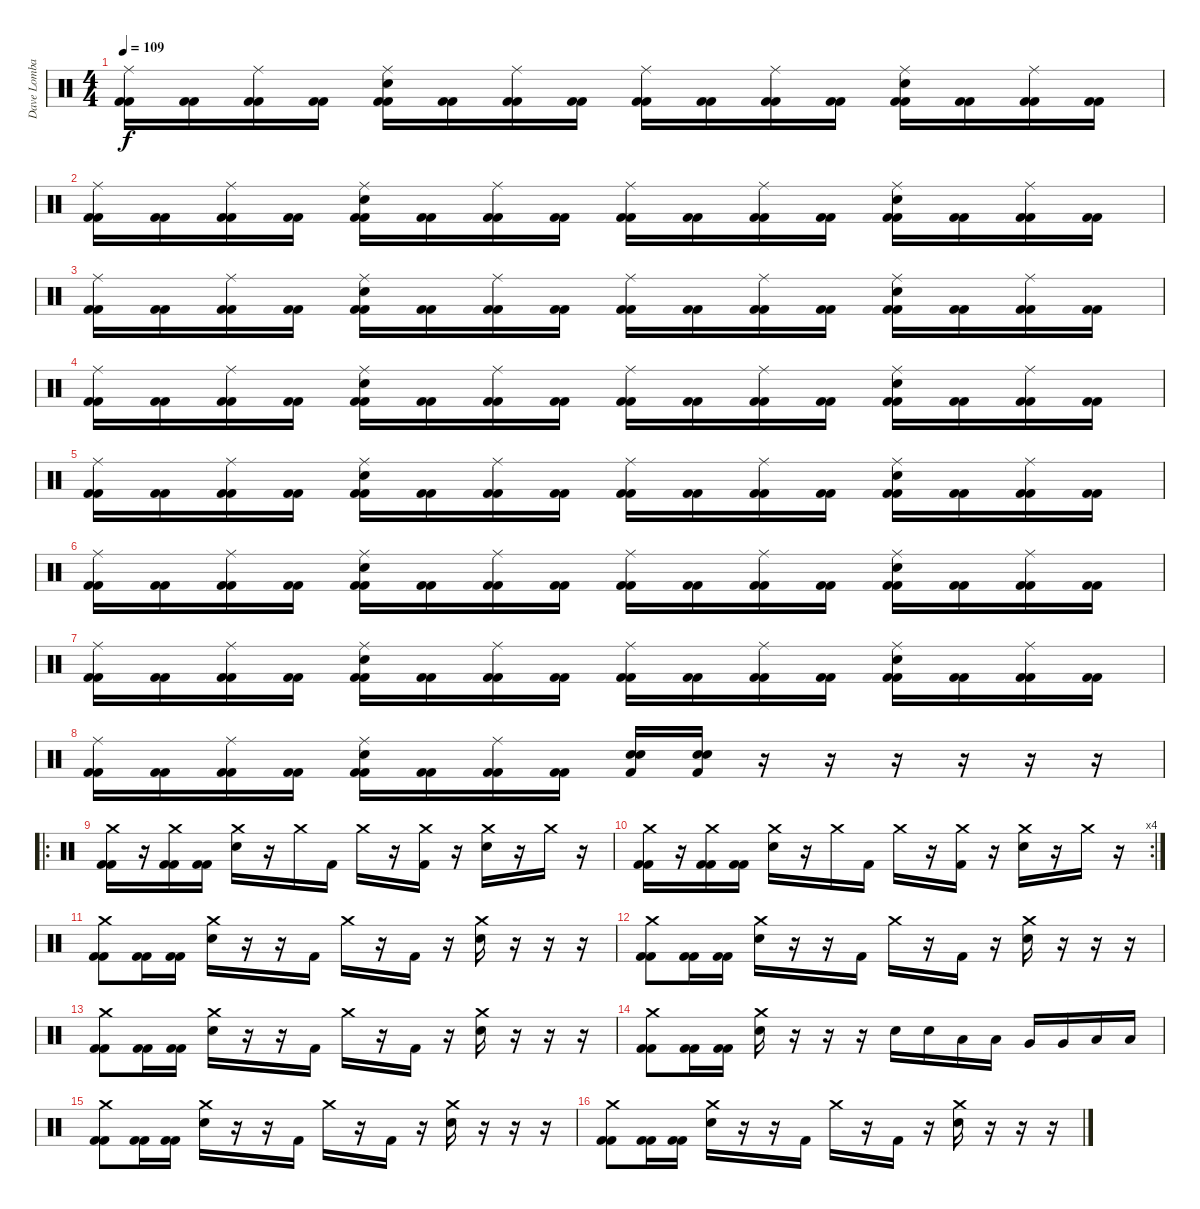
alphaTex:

\track ("Dave Lombardo" "Dave Lomba") {instrument percussion}
\staff {score}
\articulation defaults
\ts (4 4)
\tempo 109
\clef neutral
\ks c
("Kick (hit) 2" "Ride (middle)" "Kick (hit) 2").16{dy f} ("Kick (hit) 2" "Kick (hit) 2").16 ("Kick (hit) 2" "Ride (middle)" "Kick (hit) 2").16 ("Kick (hit) 2" "Kick (hit) 2").16 ("Kick (hit) 2" "Ride (middle)" "Electric Snare (hit)" "Kick (hit) 2").16 ("Kick (hit) 2" "Kick (hit) 2").16 ("Kick (hit) 2" "Ride (middle)" "Kick (hit) 2").16 ("Kick (hit) 2" "Kick (hit) 2").16 ("Kick (hit) 2" "Ride (middle)" "Kick (hit) 2").16 ("Kick (hit) 2" "Kick (hit) 2").16 ("Kick (hit) 2" "Ride (middle)" "Kick (hit) 2").16 ("Kick (hit) 2" "Kick (hit) 2").16 ("Kick (hit) 2" "Ride (middle)" "Electric Snare (hit)" "Kick (hit) 2").16 ("Kick (hit) 2" "Kick (hit) 2").16 ("Kick (hit) 2" "Ride (middle)" "Kick (hit) 2").16 ("Kick (hit) 2" "Kick (hit) 2").16 |
("Kick (hit) 2" "Ride (middle)" "Kick (hit) 2").16 ("Kick (hit) 2" "Kick (hit) 2").16 ("Kick (hit) 2" "Ride (middle)" "Kick (hit) 2").16 ("Kick (hit) 2" "Kick (hit) 2").16 ("Kick (hit) 2" "Ride (middle)" "Electric Snare (hit)" "Kick (hit) 2").16 ("Kick (hit) 2" "Kick (hit) 2").16 ("Kick (hit) 2" "Ride (middle)" "Kick (hit) 2").16 ("Kick (hit) 2" "Kick (hit) 2").16 ("Kick (hit) 2" "Ride (middle)" "Kick (hit) 2").16 ("Kick (hit) 2" "Kick (hit) 2").16 ("Kick (hit) 2" "Ride (middle)" "Kick (hit) 2").16 ("Kick (hit) 2" "Kick (hit) 2").16 ("Kick (hit) 2" "Ride (middle)" "Electric Snare (hit)" "Kick (hit) 2").16 ("Kick (hit) 2" "Kick (hit) 2").16 ("Kick (hit) 2" "Ride (middle)" "Kick (hit) 2").16 ("Kick (hit) 2" "Kick (hit) 2").16 |
("Kick (hit) 2" "Ride (middle)" "Kick (hit) 2").16 ("Kick (hit) 2" "Kick (hit) 2").16 ("Kick (hit) 2" "Ride (middle)" "Kick (hit) 2").16 ("Kick (hit) 2" "Kick (hit) 2").16 ("Kick (hit) 2" "Ride (middle)" "Electric Snare (hit)" "Kick (hit) 2").16 ("Kick (hit) 2" "Kick (hit) 2").16 ("Kick (hit) 2" "Ride (middle)" "Kick (hit) 2").16 ("Kick (hit) 2" "Kick (hit) 2").16 ("Kick (hit) 2" "Ride (middle)" "Kick (hit) 2").16 ("Kick (hit) 2" "Kick (hit) 2").16 ("Kick (hit) 2" "Ride (middle)" "Kick (hit) 2").16 ("Kick (hit) 2" "Kick (hit) 2").16 ("Kick (hit) 2" "Ride (middle)" "Electric Snare (hit)" "Kick (hit) 2").16 ("Kick (hit) 2" "Kick (hit) 2").16 ("Kick (hit) 2" "Ride (middle)" "Kick (hit) 2").16 ("Kick (hit) 2" "Kick (hit) 2").16 |
("Kick (hit) 2" "Ride (middle)" "Kick (hit) 2").16 ("Kick (hit) 2" "Kick (hit) 2").16 ("Kick (hit) 2" "Ride (middle)" "Kick (hit) 2").16 ("Kick (hit) 2" "Kick (hit) 2").16 ("Kick (hit) 2" "Ride (middle)" "Electric Snare (hit)" "Kick (hit) 2").16 ("Kick (hit) 2" "Kick (hit) 2").16 ("Kick (hit) 2" "Ride (middle)" "Kick (hit) 2").16 ("Kick (hit) 2" "Kick (hit) 2").16 ("Kick (hit) 2" "Ride (middle)" "Kick (hit) 2").16 ("Kick (hit) 2" "Kick (hit) 2").16 ("Kick (hit) 2" "Ride (middle)" "Kick (hit) 2").16 ("Kick (hit) 2" "Kick (hit) 2").16 ("Kick (hit) 2" "Ride (middle)" "Electric Snare (hit)" "Kick (hit) 2").16 ("Kick (hit) 2" "Kick (hit) 2").16 ("Kick (hit) 2" "Ride (middle)" "Kick (hit) 2").16 ("Kick (hit) 2" "Kick (hit) 2").16 |
("Kick (hit) 2" "Ride (middle)" "Kick (hit) 2").16 ("Kick (hit) 2" "Kick (hit) 2").16 ("Kick (hit) 2" "Ride (middle)" "Kick (hit) 2").16 ("Kick (hit) 2" "Kick (hit) 2").16 ("Kick (hit) 2" "Ride (middle)" "Electric Snare (hit)" "Kick (hit) 2").16 ("Kick (hit) 2" "Kick (hit) 2").16 ("Kick (hit) 2" "Ride (middle)" "Kick (hit) 2").16 ("Kick (hit) 2" "Kick (hit) 2").16 ("Kick (hit) 2" "Ride (middle)" "Kick (hit) 2").16 ("Kick (hit) 2" "Kick (hit) 2").16 ("Kick (hit) 2" "Ride (middle)" "Kick (hit) 2").16 ("Kick (hit) 2" "Kick (hit) 2").16 ("Kick (hit) 2" "Ride (middle)" "Electric Snare (hit)" "Kick (hit) 2").16 ("Kick (hit) 2" "Kick (hit) 2").16 ("Kick (hit) 2" "Ride (middle)" "Kick (hit) 2").16 ("Kick (hit) 2" "Kick (hit) 2").16 |
("Kick (hit) 2" "Ride (middle)" "Kick (hit) 2").16 ("Kick (hit) 2" "Kick (hit) 2").16 ("Kick (hit) 2" "Ride (middle)" "Kick (hit) 2").16 ("Kick (hit) 2" "Kick (hit) 2").16 ("Kick (hit) 2" "Ride (middle)" "Electric Snare (hit)" "Kick (hit) 2").16 ("Kick (hit) 2" "Kick (hit) 2").16 ("Kick (hit) 2" "Ride (middle)" "Kick (hit) 2").16 ("Kick (hit) 2" "Kick (hit) 2").16 ("Kick (hit) 2" "Ride (middle)" "Kick (hit) 2").16 ("Kick (hit) 2" "Kick (hit) 2").16 ("Kick (hit) 2" "Ride (middle)" "Kick (hit) 2").16 ("Kick (hit) 2" "Kick (hit) 2").16 ("Kick (hit) 2" "Ride (middle)" "Electric Snare (hit)" "Kick (hit) 2").16 ("Kick (hit) 2" "Kick (hit) 2").16 ("Kick (hit) 2" "Ride (middle)" "Kick (hit) 2").16 ("Kick (hit) 2" "Kick (hit) 2").16 |
("Kick (hit) 2" "Ride (middle)" "Kick (hit) 2").16 ("Kick (hit) 2" "Kick (hit) 2").16 ("Kick (hit) 2" "Ride (middle)" "Kick (hit) 2").16 ("Kick (hit) 2" "Kick (hit) 2").16 ("Kick (hit) 2" "Ride (middle)" "Electric Snare (hit)" "Kick (hit) 2").16 ("Kick (hit) 2" "Kick (hit) 2").16 ("Kick (hit) 2" "Ride (middle)" "Kick (hit) 2").16 ("Kick (hit) 2" "Kick (hit) 2").16 ("Kick (hit) 2" "Ride (middle)" "Kick (hit) 2").16 ("Kick (hit) 2" "Kick (hit) 2").16 ("Kick (hit) 2" "Ride (middle)" "Kick (hit) 2").16 ("Kick (hit) 2" "Kick (hit) 2").16 ("Kick (hit) 2" "Ride (middle)" "Electric Snare (hit)" "Kick (hit) 2").16 ("Kick (hit) 2" "Kick (hit) 2").16 ("Kick (hit) 2" "Ride (middle)" "Kick (hit) 2").16 ("Kick (hit) 2" "Kick (hit) 2").16 |
("Kick (hit) 2" "Ride (middle)" "Kick (hit) 2").16 ("Kick (hit) 2" "Kick (hit) 2").16 ("Kick (hit) 2" "Ride (middle)" "Kick (hit) 2").16 ("Kick (hit) 2" "Kick (hit) 2").16 ("Kick (hit) 2" "Ride (middle)" "Electric Snare (hit)" "Kick (hit) 2").16 ("Kick (hit) 2" "Kick (hit) 2").16 ("Kick (hit) 2" "Ride (middle)" "Kick (hit) 2").16 ("Kick (hit) 2" "Kick (hit) 2").16 ("Kick (hit) 2" "Electric Snare (hit)" "Electric Snare (hit)").16 ("Kick (hit) 2" "Electric Snare (hit)" "Electric Snare (hit)").16 r.16 r.16 r.16 r.16 r.16 r.16 |
\ro
("Kick (hit) 2" "Crash medium (hit)" "Kick (hit) 2").16 r.16 ("Kick (hit) 2" "Crash medium (hit)" "Kick (hit) 2").16 ("Kick (hit) 2" "Kick (hit) 2").16 ("Crash medium (hit)" "Electric Snare (hit)").16 r.16 "Crash medium (hit)".16 "Kick (hit) 2".16 "Crash medium (hit)".16 r.16 ("Crash medium (hit)" "Kick (hit) 2").16 r.16 ("Crash medium (hit)" "Electric Snare (hit)").16 r.16 "Crash medium (hit)".16 r.16 |
\rc 4
("Kick (hit) 2" "Crash medium (hit)" "Kick (hit) 2").16 r.16 ("Kick (hit) 2" "Crash medium (hit)" "Kick (hit) 2").16 ("Kick (hit) 2" "Kick (hit) 2").16 ("Crash medium (hit)" "Electric Snare (hit)").16 r.16 "Crash medium (hit)".16 "Kick (hit) 2".16 "Crash medium (hit)".16 r.16 ("Crash medium (hit)" "Kick (hit) 2").16 r.16 ("Crash medium (hit)" "Electric Snare (hit)").16 r.16 "Crash medium (hit)".16 r.16 |
("Kick (hit) 2" "Crash medium (hit)" "Kick (hit) 2").8 ("Kick (hit) 2" "Kick (hit) 2").16 ("Kick (hit) 2" "Kick (hit) 2").16 ("Crash medium (hit)" "Electric Snare (hit)").16 r.16 r.16 "Kick (hit) 2".16 "Crash medium (hit)".16 r.16 "Kick (hit) 2".16 r.16 ("Crash medium (hit)" "Electric Snare (hit)").16 r.16 r.16 r.16 |
("Kick (hit) 2" "Crash medium (hit)" "Kick (hit) 2").8 ("Kick (hit) 2" "Kick (hit) 2").16 ("Kick (hit) 2" "Kick (hit) 2").16 ("Crash medium (hit)" "Electric Snare (hit)").16 r.16 r.16 "Kick (hit) 2".16 "Crash medium (hit)".16 r.16 "Kick (hit) 2".16 r.16 ("Crash medium (hit)" "Electric Snare (hit)").16 r.16 r.16 r.16 |
("Kick (hit) 2" "Crash medium (hit)" "Kick (hit) 2").8 ("Kick (hit) 2" "Kick (hit) 2").16 ("Kick (hit) 2" "Kick (hit) 2").16 ("Crash medium (hit)" "Electric Snare (hit)").16 r.16 r.16 "Kick (hit) 2".16 "Crash medium (hit)".16 r.16 "Kick (hit) 2".16 r.16 ("Crash medium (hit)" "Electric Snare (hit)").16 r.16 r.16 r.16 |
("Kick (hit) 2" "Crash medium (hit)" "Kick (hit) 2").8 ("Kick (hit) 2" "Kick (hit) 2").16 ("Kick (hit) 2" "Kick (hit) 2").16 ("Crash medium (hit)" "Electric Snare (hit)").16 r.16 r.16 r.16 "Electric Snare (hit)".16 "Electric Snare (hit)".16 "Low Tom (hit)".16 "Low Tom (hit)".16 "Very Low Tom (hit)".16 "Very Low Tom (hit)".16 "Low Floor Tom (hit)".16 "Low Floor Tom (hit)".16 |
("Kick (hit) 2" "Crash medium (hit)" "Kick (hit) 2").8 ("Kick (hit) 2" "Kick (hit) 2").16 ("Kick (hit) 2" "Kick (hit) 2").16 ("Crash medium (hit)" "Electric Snare (hit)").16 r.16 r.16 "Kick (hit) 2".16 "Crash medium (hit)".16 r.16 "Kick (hit) 2".16 r.16 ("Crash medium (hit)" "Electric Snare (hit)").16 r.16 r.16 r.16 |
("Kick (hit) 2" "Crash medium (hit)" "Kick (hit) 2").8 ("Kick (hit) 2" "Kick (hit) 2").16 ("Kick (hit) 2" "Kick (hit) 2").16 ("Crash medium (hit)" "Electric Snare (hit)").16 r.16 r.16 "Kick (hit) 2".16 "Crash medium (hit)".16 r.16 "Kick (hit) 2".16 r.16 ("Crash medium (hit)" "Electric Snare (hit)").16 r.16 r.16 r.16
